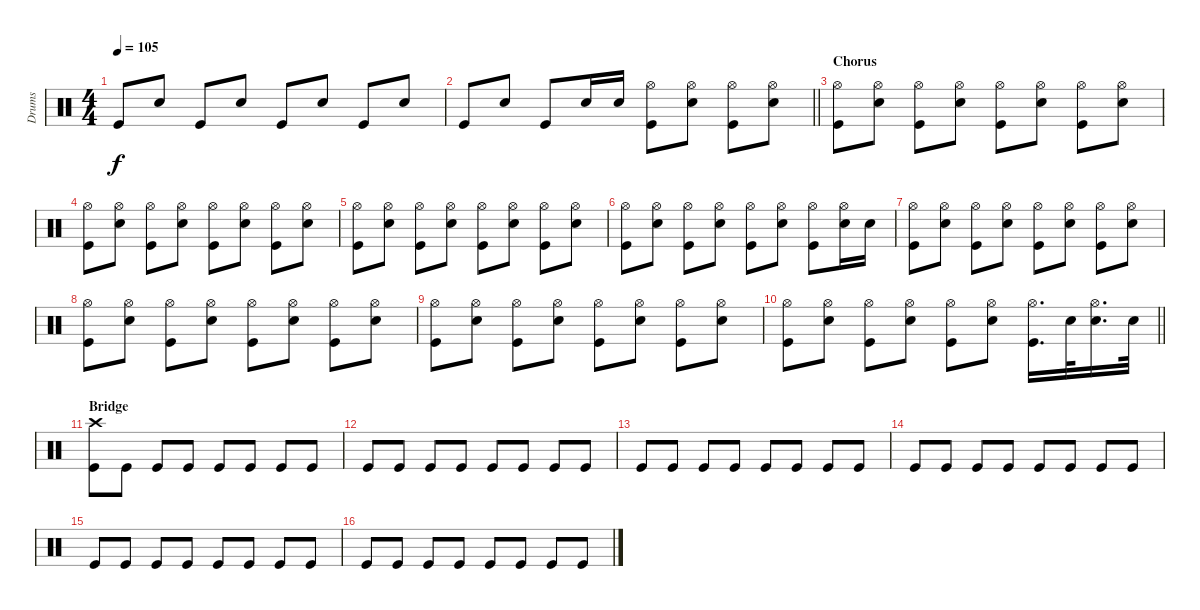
\track ("Drums" "Drums") {instrument percussion}
\staff
\articulation defaults
\ts (4 4)
\tempo 105
\clef neutral
\ks c "Kick (hit)".8{dy f} "Snare (hit) 2".8 "Kick (hit)".8 "Snare (hit) 2".8 "Kick (hit)".8 "Snare (hit) 2".8 "Kick (hit)".8 "Snare (hit) 2".8
|
\barLineRight lightlight "Kick (hit)".8 "Snare (hit) 2".8 "Kick (hit)".8 "Snare (hit) 2".16 "Snare (hit) 2".16
("Hi-Hat (open)" "Kick (hit)").8 ("Hi-Hat (open)" "Snare (hit) 2").8 ("Hi-Hat (open)" "Kick (hit)").8 ("Hi-Hat (open)" "Snare (hit) 2").8 |
\section ("" "Chorus")
("Hi-Hat (open)" "Kick (hit)").8 ("Hi-Hat (open)" "Snare (hit) 2").8 ("Hi-Hat (open)" "Kick (hit)").8 ("Hi-Hat (open)" "Snare (hit) 2").8 ("Hi-Hat (open)" "Kick (hit)").8 ("Hi-Hat (open)" "Snare (hit) 2").8 ("Hi-Hat (open)" "Kick (hit)").8 ("Hi-Hat (open)" "Snare (hit) 2").8 |
("Hi-Hat (open)" "Kick (hit)").8 ("Hi-Hat (open)" "Snare (hit) 2").8 ("Hi-Hat (open)" "Kick (hit)").8 ("Hi-Hat (open)" "Snare (hit) 2").8 ("Hi-Hat (open)" "Kick (hit)").8 ("Hi-Hat (open)" "Snare (hit) 2").8 ("Hi-Hat (open)" "Kick (hit)").8 ("Hi-Hat (open)" "Snare (hit) 2").8 |
("Hi-Hat (open)" "Kick (hit)").8 ("Hi-Hat (open)" "Snare (hit) 2").8 ("Hi-Hat (open)" "Kick (hit)").8 ("Hi-Hat (open)" "Snare (hit) 2").8 ("Hi-Hat (open)" "Kick (hit)").8 ("Hi-Hat (open)" "Snare (hit) 2").8 ("Hi-Hat (open)" "Kick (hit)").8 ("Hi-Hat (open)" "Snare (hit) 2").8 |
("Hi-Hat (open)" "Kick (hit)").8 ("Hi-Hat (open)" "Snare (hit) 2").8 ("Hi-Hat (open)" "Kick (hit)").8 ("Hi-Hat (open)" "Snare (hit) 2").8 ("Hi-Hat (open)" "Kick (hit)").8 ("Hi-Hat (open)" "Snare (hit) 2").8 ("Hi-Hat (open)" "Kick (hit)").8 ("Hi-Hat (open)" "Snare (hit) 2").16 "Snare (hit) 2".16 |
("Hi-Hat (open)" "Kick (hit)").8 ("Hi-Hat (open)" "Snare (hit) 2").8 ("Hi-Hat (open)" "Kick (hit)").8 ("Hi-Hat (open)" "Snare (hit) 2").8 ("Hi-Hat (open)" "Kick (hit)").8 ("Hi-Hat (open)" "Snare (hit) 2").8 ("Hi-Hat (open)" "Kick (hit)").8 ("Hi-Hat (open)" "Snare (hit) 2").8 |
("Hi-Hat (open)" "Kick (hit)").8 ("Hi-Hat (open)" "Snare (hit) 2").8 ("Hi-Hat (open)" "Kick (hit)").8 ("Hi-Hat (open)" "Snare (hit) 2").8 ("Hi-Hat (open)" "Kick (hit)").8 ("Hi-Hat (open)" "Snare (hit) 2").8 ("Hi-Hat (open)" "Kick (hit)").8 ("Hi-Hat (open)" "Snare (hit) 2").8 |
("Hi-Hat (open)" "Kick (hit)").8 ("Hi-Hat (open)" "Snare (hit) 2").8 ("Hi-Hat (open)" "Kick (hit)").8 ("Hi-Hat (open)" "Snare (hit) 2").8 ("Hi-Hat (open)" "Kick (hit)").8 ("Hi-Hat (open)" "Snare (hit) 2").8 ("Hi-Hat (open)" "Kick (hit)").8 ("Hi-Hat (open)" "Snare (hit) 2").8 |
\barLineRight lightlight
("Hi-Hat (open)" "Kick (hit)").8 ("Hi-Hat (open)" "Snare (hit) 2").8 ("Hi-Hat (open)" "Kick (hit)").8 ("Hi-Hat (open)" "Snare (hit) 2").8 ("Hi-Hat (open)" "Kick (hit)").8 ("Hi-Hat (open)" "Snare (hit) 2").8 ("Hi-Hat (open)" "Kick (hit)").16{d} "Snare (hit) 2".32 ("Hi-Hat (open)" "Snare (hit) 2").16{d} "Snare (hit) 2".32 |
\section ("" "Bridge")
("Crash high (hit)" "Kick (hit)").8 "Kick (hit)".8 "Kick (hit)".8 "Kick (hit)".8 "Kick (hit)".8 "Kick (hit)".8 "Kick (hit)".8 "Kick (hit)".8 |
"Kick (hit)".8 "Kick (hit)".8 "Kick (hit)".8 "Kick (hit)".8 "Kick (hit)".8 "Kick (hit)".8 "Kick (hit)".8 "Kick (hit)".8 |
"Kick (hit)".8 "Kick (hit)".8 "Kick (hit)".8 "Kick (hit)".8 "Kick (hit)".8 "Kick (hit)".8 "Kick (hit)".8 "Kick (hit)".8 |
"Kick (hit)".8 "Kick (hit)".8 "Kick (hit)".8 "Kick (hit)".8 "Kick (hit)".8 "Kick (hit)".8 "Kick (hit)".8 "Kick (hit)".8 |
"Kick (hit)".8 "Kick (hit)".8 "Kick (hit)".8 "Kick (hit)".8 "Kick (hit)".8 "Kick (hit)".8 "Kick (hit)".8 "Kick (hit)".8 |
"Kick (hit)".8 "Kick (hit)".8 "Kick (hit)".8 "Kick (hit)".8 "Kick (hit)".8 "Kick (hit)".8 "Kick (hit)".8 "Kick (hit)".8
